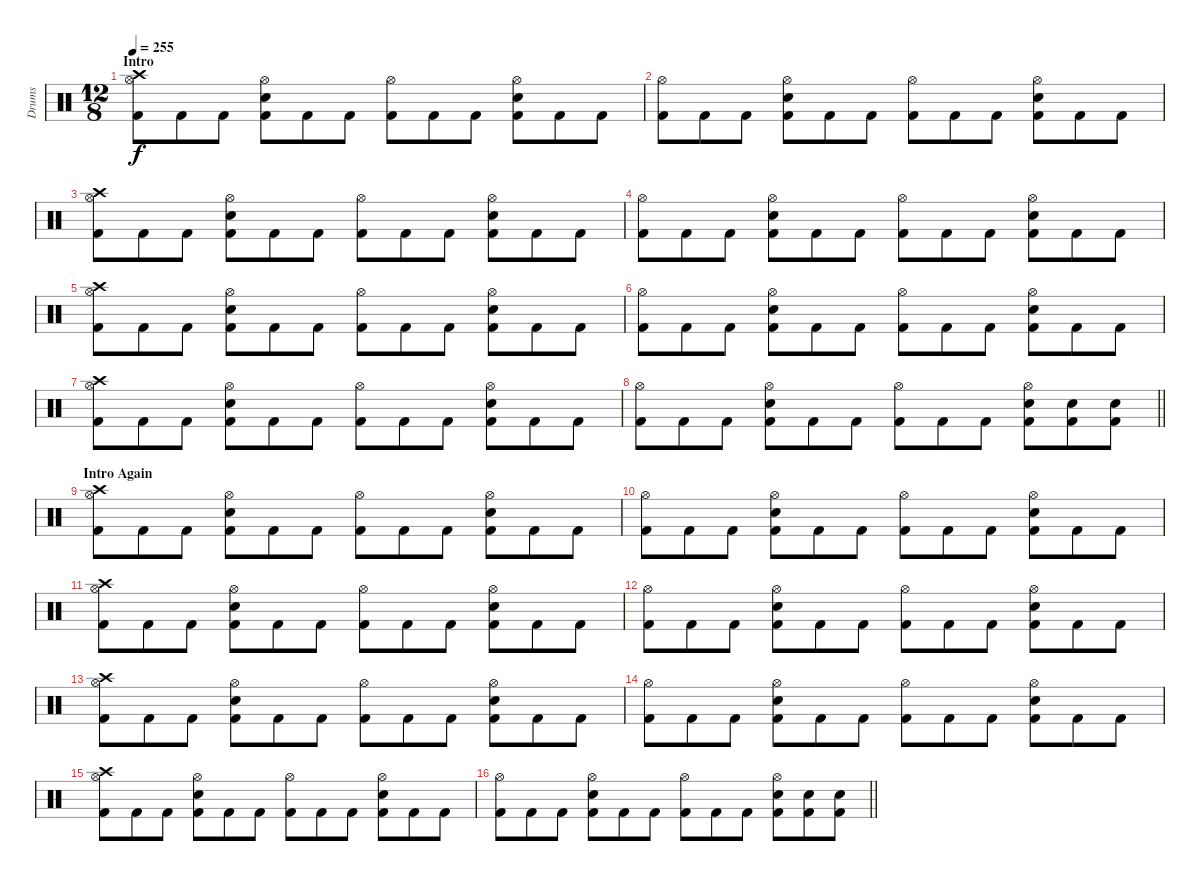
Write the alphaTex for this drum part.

\track ("Drums" "Drums") {instrument percussion}
\staff {score}
\articulation defaults
\ts (12 8)
\section ("" "Intro")
\tempo 255
\clef neutral
\ks c
("Crash high (hit)" "Hi-Hat (open)" "Kick (hit) 2").8{dy f} "Kick (hit) 2".8 "Kick (hit) 2".8 ("Hi-Hat (open)" "Snare (hit) 2" "Kick (hit) 2").8 "Kick (hit) 2".8 "Kick (hit) 2".8 ("Hi-Hat (open)" "Kick (hit) 2").8 "Kick (hit) 2".8 "Kick (hit) 2".8 ("Hi-Hat (open)" "Snare (hit) 2" "Kick (hit) 2").8 "Kick (hit) 2".8 "Kick (hit) 2".8 |
("Hi-Hat (open)" "Kick (hit) 2").8 "Kick (hit) 2".8 "Kick (hit) 2".8 ("Hi-Hat (open)" "Snare (hit) 2" "Kick (hit) 2").8 "Kick (hit) 2".8 "Kick (hit) 2".8 ("Hi-Hat (open)" "Kick (hit) 2").8 "Kick (hit) 2".8 "Kick (hit) 2".8 ("Hi-Hat (open)" "Snare (hit) 2" "Kick (hit) 2").8 "Kick (hit) 2".8 "Kick (hit) 2".8 |
("Crash high (hit)" "Hi-Hat (open)" "Kick (hit) 2").8 "Kick (hit) 2".8 "Kick (hit) 2".8 ("Hi-Hat (open)" "Snare (hit) 2" "Kick (hit) 2").8 "Kick (hit) 2".8 "Kick (hit) 2".8 ("Hi-Hat (open)" "Kick (hit) 2").8 "Kick (hit) 2".8 "Kick (hit) 2".8 ("Hi-Hat (open)" "Snare (hit) 2" "Kick (hit) 2").8 "Kick (hit) 2".8 "Kick (hit) 2".8 |
("Hi-Hat (open)" "Kick (hit) 2").8 "Kick (hit) 2".8 "Kick (hit) 2".8 ("Hi-Hat (open)" "Snare (hit) 2" "Kick (hit) 2").8 "Kick (hit) 2".8 "Kick (hit) 2".8 ("Hi-Hat (open)" "Kick (hit) 2").8 "Kick (hit) 2".8 "Kick (hit) 2".8 ("Hi-Hat (open)" "Snare (hit) 2" "Kick (hit) 2").8 "Kick (hit) 2".8 "Kick (hit) 2".8 |
("Crash high (hit)" "Hi-Hat (open)" "Kick (hit) 2").8 "Kick (hit) 2".8 "Kick (hit) 2".8 ("Hi-Hat (open)" "Snare (hit) 2" "Kick (hit) 2").8 "Kick (hit) 2".8 "Kick (hit) 2".8 ("Hi-Hat (open)" "Kick (hit) 2").8 "Kick (hit) 2".8 "Kick (hit) 2".8 ("Hi-Hat (open)" "Snare (hit) 2" "Kick (hit) 2").8 "Kick (hit) 2".8 "Kick (hit) 2".8 |
("Hi-Hat (open)" "Kick (hit) 2").8 "Kick (hit) 2".8 "Kick (hit) 2".8 ("Hi-Hat (open)" "Snare (hit) 2" "Kick (hit) 2").8 "Kick (hit) 2".8 "Kick (hit) 2".8 ("Hi-Hat (open)" "Kick (hit) 2").8 "Kick (hit) 2".8 "Kick (hit) 2".8 ("Hi-Hat (open)" "Snare (hit) 2" "Kick (hit) 2").8 "Kick (hit) 2".8 "Kick (hit) 2".8 |
("Crash high (hit)" "Hi-Hat (open)" "Kick (hit) 2").8 "Kick (hit) 2".8 "Kick (hit) 2".8 ("Hi-Hat (open)" "Snare (hit) 2" "Kick (hit) 2").8 "Kick (hit) 2".8 "Kick (hit) 2".8 ("Hi-Hat (open)" "Kick (hit) 2").8 "Kick (hit) 2".8 "Kick (hit) 2".8 ("Hi-Hat (open)" "Snare (hit) 2" "Kick (hit) 2").8 "Kick (hit) 2".8 "Kick (hit) 2".8 |
\barLineRight lightlight
("Hi-Hat (open)" "Kick (hit) 2").8 "Kick (hit) 2".8 "Kick (hit) 2".8 ("Hi-Hat (open)" "Snare (hit) 2" "Kick (hit) 2").8 "Kick (hit) 2".8 "Kick (hit) 2".8 ("Hi-Hat (open)" "Kick (hit) 2").8 "Kick (hit) 2".8 "Kick (hit) 2".8 ("Hi-Hat (open)" "Snare (hit) 2" "Kick (hit) 2").8 ("Snare (hit) 2" "Kick (hit) 2").8 ("Snare (hit) 2" "Kick (hit) 2").8 |
\section ("" "Intro Again")
("Crash high (hit)" "Hi-Hat (open)" "Kick (hit) 2").8 "Kick (hit) 2".8 "Kick (hit) 2".8 ("Hi-Hat (open)" "Snare (hit) 2" "Kick (hit) 2").8 "Kick (hit) 2".8 "Kick (hit) 2".8 ("Hi-Hat (open)" "Kick (hit) 2").8 "Kick (hit) 2".8 "Kick (hit) 2".8 ("Hi-Hat (open)" "Snare (hit) 2" "Kick (hit) 2").8 "Kick (hit) 2".8 "Kick (hit) 2".8 |
("Hi-Hat (open)" "Kick (hit) 2").8 "Kick (hit) 2".8 "Kick (hit) 2".8 ("Hi-Hat (open)" "Snare (hit) 2" "Kick (hit) 2").8 "Kick (hit) 2".8 "Kick (hit) 2".8 ("Hi-Hat (open)" "Kick (hit) 2").8 "Kick (hit) 2".8 "Kick (hit) 2".8 ("Hi-Hat (open)" "Snare (hit) 2" "Kick (hit) 2").8 "Kick (hit) 2".8 "Kick (hit) 2".8 |
("Crash high (hit)" "Hi-Hat (open)" "Kick (hit) 2").8 "Kick (hit) 2".8 "Kick (hit) 2".8 ("Hi-Hat (open)" "Snare (hit) 2" "Kick (hit) 2").8 "Kick (hit) 2".8 "Kick (hit) 2".8 ("Hi-Hat (open)" "Kick (hit) 2").8 "Kick (hit) 2".8 "Kick (hit) 2".8 ("Hi-Hat (open)" "Snare (hit) 2" "Kick (hit) 2").8 "Kick (hit) 2".8 "Kick (hit) 2".8 |
("Hi-Hat (open)" "Kick (hit) 2").8 "Kick (hit) 2".8 "Kick (hit) 2".8 ("Hi-Hat (open)" "Snare (hit) 2" "Kick (hit) 2").8 "Kick (hit) 2".8 "Kick (hit) 2".8 ("Hi-Hat (open)" "Kick (hit) 2").8 "Kick (hit) 2".8 "Kick (hit) 2".8 ("Hi-Hat (open)" "Snare (hit) 2" "Kick (hit) 2").8 "Kick (hit) 2".8 "Kick (hit) 2".8 |
("Crash high (hit)" "Hi-Hat (open)" "Kick (hit) 2").8 "Kick (hit) 2".8 "Kick (hit) 2".8 ("Hi-Hat (open)" "Snare (hit) 2" "Kick (hit) 2").8 "Kick (hit) 2".8 "Kick (hit) 2".8 ("Hi-Hat (open)" "Kick (hit) 2").8 "Kick (hit) 2".8 "Kick (hit) 2".8 ("Hi-Hat (open)" "Snare (hit) 2" "Kick (hit) 2").8 "Kick (hit) 2".8 "Kick (hit) 2".8 |
("Hi-Hat (open)" "Kick (hit) 2").8 "Kick (hit) 2".8 "Kick (hit) 2".8 ("Hi-Hat (open)" "Snare (hit) 2" "Kick (hit) 2").8 "Kick (hit) 2".8 "Kick (hit) 2".8 ("Hi-Hat (open)" "Kick (hit) 2").8 "Kick (hit) 2".8 "Kick (hit) 2".8 ("Hi-Hat (open)" "Snare (hit) 2" "Kick (hit) 2").8 "Kick (hit) 2".8 "Kick (hit) 2".8 |
("Crash high (hit)" "Hi-Hat (open)" "Kick (hit) 2").8 "Kick (hit) 2".8 "Kick (hit) 2".8 ("Hi-Hat (open)" "Snare (hit) 2" "Kick (hit) 2").8 "Kick (hit) 2".8 "Kick (hit) 2".8 ("Hi-Hat (open)" "Kick (hit) 2").8 "Kick (hit) 2".8 "Kick (hit) 2".8 ("Hi-Hat (open)" "Snare (hit) 2" "Kick (hit) 2").8 "Kick (hit) 2".8 "Kick (hit) 2".8 |
\barLineRight lightlight
("Hi-Hat (open)" "Kick (hit) 2").8 "Kick (hit) 2".8 "Kick (hit) 2".8 ("Hi-Hat (open)" "Snare (hit) 2" "Kick (hit) 2").8 "Kick (hit) 2".8 "Kick (hit) 2".8 ("Hi-Hat (open)" "Kick (hit) 2").8 "Kick (hit) 2".8 "Kick (hit) 2".8 ("Hi-Hat (open)" "Snare (hit) 2" "Kick (hit) 2").8 ("Snare (hit) 2" "Kick (hit) 2").8 ("Snare (hit) 2" "Kick (hit) 2").8
